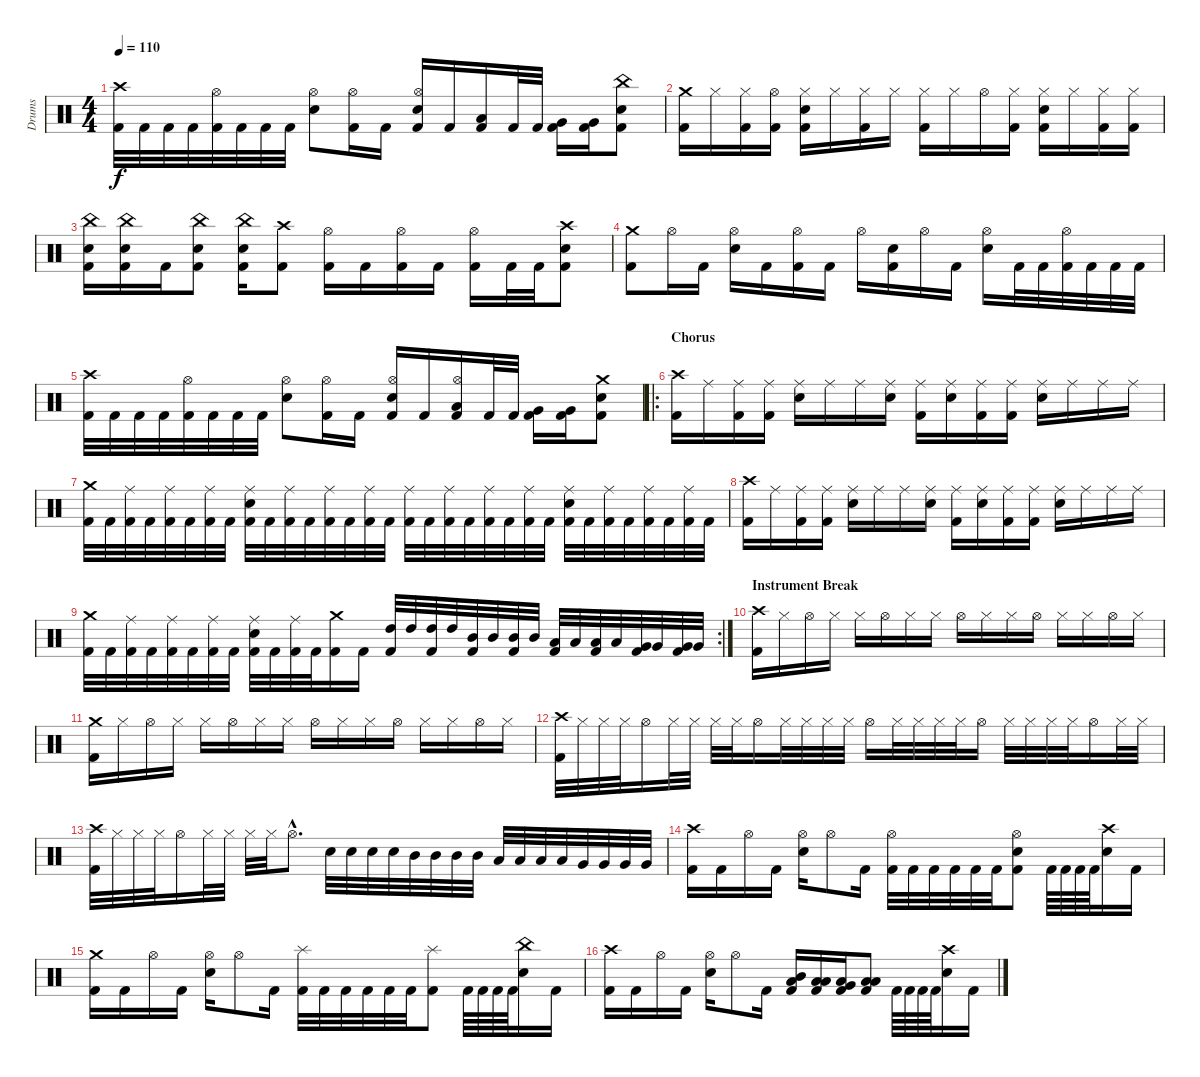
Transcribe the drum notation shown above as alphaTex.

\track ("Drums" "Drums") {instrument percussion}
\staff {score}
\articulation defaults
\ts (4 4)
\tempo 110
\clef neutral
\ks c
("Crash high (hit)" "Kick (hit) 2").32{dy f} "Kick (hit) 2".32 "Kick (hit) 2".32 "Kick (hit) 2".32 ("Hi-Hat (open)" "Kick (hit) 2").32 "Kick (hit) 2".32 "Kick (hit) 2".32 "Kick (hit) 2".32 ("Hi-Hat (open)" "Electric Snare (hit)").8 ("Hi-Hat (open)" "Kick (hit) 2").16 "Kick (hit) 2".16 ("Hi-Hat (open)" "Electric Snare (hit)" "Kick (hit) 2").16 "Kick (hit) 2".16 ("Low Tom (hit)" "Kick (hit) 2").16 "Kick (hit) 2".32 "Kick (hit) 2".32 ("Very Low Tom (hit)" "Kick (hit) 2").16 ("Very Low Tom (hit)" "Kick (hit) 2").16 ("China (hit)" "Electric Snare (hit)" "Kick (hit) 2").8 |
("Crash medium (hit)" "Kick (hit) 2").16 "Hi-Hat (closed)".16 ("Hi-Hat (closed)" "Kick (hit) 2").16 ("Hi-Hat (open)" "Kick (hit) 2").16 ("Hi-Hat (closed)" "Electric Snare (hit)" "Kick (hit) 2").16 "Hi-Hat (closed)".16 ("Hi-Hat (closed)" "Kick (hit) 2").16 "Hi-Hat (closed)".16 ("Hi-Hat (closed)" "Kick (hit) 2").16 "Hi-Hat (closed)".16 "Hi-Hat (open)".16 ("Hi-Hat (closed)" "Kick (hit) 2").16 ("Hi-Hat (closed)" "Electric Snare (hit)" "Kick (hit) 2").16 "Hi-Hat (closed)".16 ("Hi-Hat (closed)" "Kick (hit) 2").16 ("Hi-Hat (closed)" "Kick (hit) 2").16 |
("China (hit)" "Electric Snare (hit)" "Kick (hit) 2").16 ("China (hit)" "Electric Snare (hit)" "Kick (hit) 2").16 "Kick (hit) 2".16 ("China (hit)" "Electric Snare (hit)" "Kick (hit) 2").8 ("China (hit)" "Electric Snare (hit)" "Kick (hit) 2").16 ("Crash high (hit)" "Kick (hit) 2").8 ("Hi-Hat (open)" "Kick (hit) 2").16 "Kick (hit) 2".16 ("Hi-Hat (open)" "Kick (hit) 2").16 "Kick (hit) 2".16 ("Hi-Hat (open)" "Kick (hit) 2").16 "Kick (hit) 2".32 "Kick (hit) 2".32 ("Crash high (hit)" "Electric Snare (hit)" "Kick (hit) 2").8 |
("Crash medium (hit)" "Kick (hit) 2").8 "Hi-Hat (open)".16 "Kick (hit) 2".16 ("Hi-Hat (open)" "Electric Snare (hit)").16 "Kick (hit) 2".16 ("Hi-Hat (open)" "Kick (hit) 2").16 "Kick (hit) 2".16 "Hi-Hat (open)".16 ("Electric Snare (hit)" "Kick (hit) 2").16 "Hi-Hat (open)".16 "Kick (hit) 2".16 ("Hi-Hat (open)" "Electric Snare (hit)").16 "Kick (hit) 2".32 "Kick (hit) 2".32 ("Hi-Hat (open)" "Kick (hit) 2").32 "Kick (hit) 2".32 "Kick (hit) 2".32 "Kick (hit) 2".32 |
("Crash high (hit)" "Kick (hit) 2").32 "Kick (hit) 2".32 "Kick (hit) 2".32 "Kick (hit) 2".32 ("Hi-Hat (open)" "Kick (hit) 2").32 "Kick (hit) 2".32 "Kick (hit) 2".32 "Kick (hit) 2".32 ("Hi-Hat (open)" "Electric Snare (hit)").8 ("Hi-Hat (open)" "Kick (hit) 2").16 "Kick (hit) 2".16 ("Hi-Hat (open)" "Electric Snare (hit)" "Kick (hit) 2").16 "Kick (hit) 2".16 ("Low Tom (hit)" "Hi-Hat (open)" "Kick (hit) 2").16 "Kick (hit) 2".32 "Kick (hit) 2".32 ("Very Low Tom (hit)" "Kick (hit) 2").16 ("Very Low Tom (hit)" "Kick (hit) 2").16 ("Crash medium (hit)" "Electric Snare (hit)" "Kick (hit) 2").8 |
\ro
\section ("" "Chorus ")
("Crash high (hit)" "Kick (hit) 2").16 "Ride (middle)".16 ("Ride (middle)" "Kick (hit) 2").16 ("Ride (middle)" "Kick (hit) 2").16 ("Ride (middle)" "Electric Snare (hit)").16 "Ride (middle)".16 "Ride (middle)".16 ("Ride (middle)" "Electric Snare (hit)").16 ("Ride (middle)" "Kick (hit) 2").16 ("Ride (middle)" "Electric Snare (hit)").16 ("Ride (middle)" "Kick (hit) 2").16 ("Ride (middle)" "Kick (hit) 2").16 ("Ride (middle)" "Electric Snare (hit)").16 "Ride (middle)".16 "Ride (middle)".16 "Ride (middle)".16 |
("Crash medium (hit)" "Kick (hit) 2").32 "Kick (hit) 2".32 ("Ride (middle)" "Kick (hit) 2").32 "Kick (hit) 2".32 ("Ride (middle)" "Kick (hit) 2").32 "Kick (hit) 2".32 ("Ride (middle)" "Kick (hit) 2").32 "Kick (hit) 2".32 ("Ride (middle)" "Electric Snare (hit)" "Kick (hit) 2").32 "Kick (hit) 2".32 ("Ride (middle)" "Kick (hit) 2").32 "Kick (hit) 2".32 ("Ride (middle)" "Kick (hit) 2").32 "Kick (hit) 2".32 ("Ride (middle)" "Kick (hit) 2").32 "Kick (hit) 2".32 ("Ride (middle)" "Kick (hit) 2").32 "Kick (hit) 2".32 ("Ride (middle)" "Kick (hit) 2").32 "Kick (hit) 2".32 ("Ride (middle)" "Kick (hit) 2").32 "Kick (hit) 2".32 ("Ride (middle)" "Kick (hit) 2").32 "Kick (hit) 2".32 ("Ride (middle)" "Electric Snare (hit)" "Kick (hit) 2").32 "Kick (hit) 2".32 ("Ride (middle)" "Kick (hit) 2").32 "Kick (hit) 2".32 ("Ride (middle)" "Kick (hit) 2").32 "Kick (hit) 2".32 ("Ride (middle)" "Kick (hit) 2").32 "Kick (hit) 2".32 |
("Crash high (hit)" "Kick (hit) 2").16 "Ride (middle)".16 ("Ride (middle)" "Kick (hit) 2").16 ("Ride (middle)" "Kick (hit) 2").16 ("Ride (middle)" "Electric Snare (hit)").16 "Ride (middle)".16 "Ride (middle)".16 ("Ride (middle)" "Electric Snare (hit)").16 ("Ride (middle)" "Kick (hit) 2").16 ("Ride (middle)" "Electric Snare (hit)").16 ("Ride (middle)" "Kick (hit) 2").16 ("Ride (middle)" "Kick (hit) 2").16 ("Ride (middle)" "Electric Snare (hit)").16 "Ride (middle)".16 "Ride (middle)".16 "Ride (middle)".16 |
\rc 2
("Crash medium (hit)" "Kick (hit) 2").32 "Kick (hit) 2".32 ("Ride (middle)" "Kick (hit) 2").32 "Kick (hit) 2".32 ("Ride (middle)" "Kick (hit) 2").32 "Kick (hit) 2".32 ("Ride (middle)" "Kick (hit) 2").32 "Kick (hit) 2".32 ("Ride (middle)" "Electric Snare (hit)" "Kick (hit) 2").32 "Kick (hit) 2".32 ("Ride (middle)" "Kick (hit) 2").32 "Kick (hit) 2".32 ("Crash medium (hit)" "Kick (hit) 2").16 "Kick (hit) 2".16 ("High Tom (hit)" "Kick (hit) 2").32 "High Tom (hit)".32 ("High Tom (hit)" "Kick (hit) 2").32 "High Tom (hit)".32 ("Mid Tom (hit)" "Kick (hit) 2").32 "Mid Tom (hit)".32 ("Mid Tom (hit)" "Kick (hit) 2").32 "Mid Tom (hit)".32 ("Low Tom (hit)" "Kick (hit) 2").32 "Low Tom (hit)".32 ("Low Tom (hit)" "Kick (hit) 2").32 "Low Tom (hit)".32 ("Very Low Tom (hit)" "Kick (hit) 2").32 "Very Low Tom (hit)".32 ("Very Low Tom (hit)" "Kick (hit) 2").32 "Very Low Tom (hit)".32 |
\section ("" "Instrument Break")
("Crash high (hit)" "Kick (hit) 2").16 "Hi-Hat (closed)".16 "Hi-Hat (open)".16 "Hi-Hat (closed)".16 "Hi-Hat (closed)".16 "Hi-Hat (open)".16 "Hi-Hat (closed)".16 "Hi-Hat (closed)".16 "Hi-Hat (open)".16 "Hi-Hat (closed)".16 "Hi-Hat (closed)".16 "Hi-Hat (open)".16 "Hi-Hat (closed)".16 "Hi-Hat (closed)".16 "Hi-Hat (open)".16 "Hi-Hat (closed)".16 |
("Crash medium (hit)" "Kick (hit) 2").16 "Hi-Hat (closed)".16 "Hi-Hat (open)".16 "Hi-Hat (closed)".16 "Hi-Hat (closed)".16 "Hi-Hat (open)".16 "Hi-Hat (closed)".16 "Hi-Hat (closed)".16 "Hi-Hat (open)".16 "Hi-Hat (closed)".16 "Hi-Hat (closed)".16 "Hi-Hat (open)".16 "Hi-Hat (closed)".16 "Hi-Hat (closed)".16 "Hi-Hat (open)".16 "Hi-Hat (closed)".16 |
("Crash high (hit)" "Kick (hit) 2").32 "Hi-Hat (closed)".32 "Hi-Hat (closed)".32 "Hi-Hat (closed)".32 "Hi-Hat (open)".16 "Hi-Hat (closed)".32 "Hi-Hat (closed)".32 "Hi-Hat (closed)".32 "Hi-Hat (closed)".32 "Hi-Hat (open)".16 "Hi-Hat (closed)".32 "Hi-Hat (closed)".32 "Hi-Hat (closed)".32 "Hi-Hat (closed)".32 "Hi-Hat (open)".16 "Hi-Hat (closed)".32 "Hi-Hat (closed)".32 "Hi-Hat (closed)".32 "Hi-Hat (closed)".32 "Hi-Hat (open)".16 "Hi-Hat (closed)".32 "Hi-Hat (closed)".32 "Hi-Hat (closed)".32 "Hi-Hat (closed)".32 "Hi-Hat (open)".16 "Hi-Hat (closed)".32 "Hi-Hat (closed)".32 |
("Crash high (hit)" "Kick (hit) 2").32 "Hi-Hat (closed)".32 "Hi-Hat (closed)".32 "Hi-Hat (closed)".32 "Hi-Hat (open)".16 "Hi-Hat (closed)".32 "Hi-Hat (closed)".32 "Hi-Hat (closed)".32 "Hi-Hat (closed)".32 "Hi-Hat (open)"{hac}.8{d} "Electric Snare (hit)".32 "Electric Snare (hit)".32 "Electric Snare (hit)".32 "Electric Snare (hit)".32 "Mid Tom (hit)".32 "Mid Tom (hit)".32 "Mid Tom (hit)".32 "Mid Tom (hit)".32 "Low Tom (hit)".32 "Low Tom (hit)".32 "Low Tom (hit)".32 "Low Tom (hit)".32 "Very Low Tom (hit)".32 "Very Low Tom (hit)".32 "Very Low Tom (hit)".32 "Very Low Tom (hit)".32 |
("Crash high (hit)" "Kick (hit) 2").16 "Kick (hit) 2".16 "Hi-Hat (open)".16 "Kick (hit) 2".16 ("Hi-Hat (open)" "Electric Snare (hit)").16 "Hi-Hat (open)".8 "Kick (hit) 2".16 ("Hi-Hat (open)" "Kick (hit) 2").32 "Kick (hit) 2".32 "Kick (hit) 2".32 "Kick (hit) 2".32 "Kick (hit) 2".32 "Kick (hit) 2".32 ("Hi-Hat (open)" "Electric Snare (hit)" "Kick (hit) 2").8 "Kick (hit) 2".64 "Kick (hit) 2".64 "Kick (hit) 2".64 "Kick (hit) 2".64 ("Crash high (hit)" "Electric Snare (hit)").16 "Kick (hit) 2".16 |
("Crash medium (hit)" "Kick (hit) 2").16 "Kick (hit) 2".16 "Hi-Hat (open)".16 "Kick (hit) 2".16 ("Hi-Hat (open)" "Electric Snare (hit)").16 "Hi-Hat (open)".8 "Kick (hit) 2".16 ("Splash (hit)" "Kick (hit) 2").32 "Kick (hit) 2".32 "Kick (hit) 2".32 "Kick (hit) 2".32 "Kick (hit) 2".32 "Kick (hit) 2".32 ("Splash (hit)" "Kick (hit) 2").8 "Kick (hit) 2".64 "Kick (hit) 2".64 "Kick (hit) 2".64 "Kick (hit) 2".64 ("China (hit)" "Electric Snare (hit)").16 "Kick (hit) 2".16 |
("Crash high (hit)" "Kick (hit) 2").16 "Kick (hit) 2".16 "Hi-Hat (open)".16 "Kick (hit) 2".16 ("Hi-Hat (open)" "Electric Snare (hit)").16 "Hi-Hat (open)".8 "Kick (hit) 2".16 ("Mid Tom (hit)" "Low Floor Tom (hit)" "Kick (hit) 2").16 ("Low Tom (hit)" "Low Floor Tom (hit)" "Kick (hit) 2").16 ("Very Low Tom (hit)" "Low Floor Tom (hit)" "Kick (hit) 2").16 ("Low Floor Tom (hit)" "Low Floor Tom (hit)" "Kick (hit) 2").8 "Kick (hit) 2".64 "Kick (hit) 2".64 "Kick (hit) 2".64 "Kick (hit) 2".64 ("Crash high (hit)" "Electric Snare (hit)").16 "Kick (hit) 2".16
